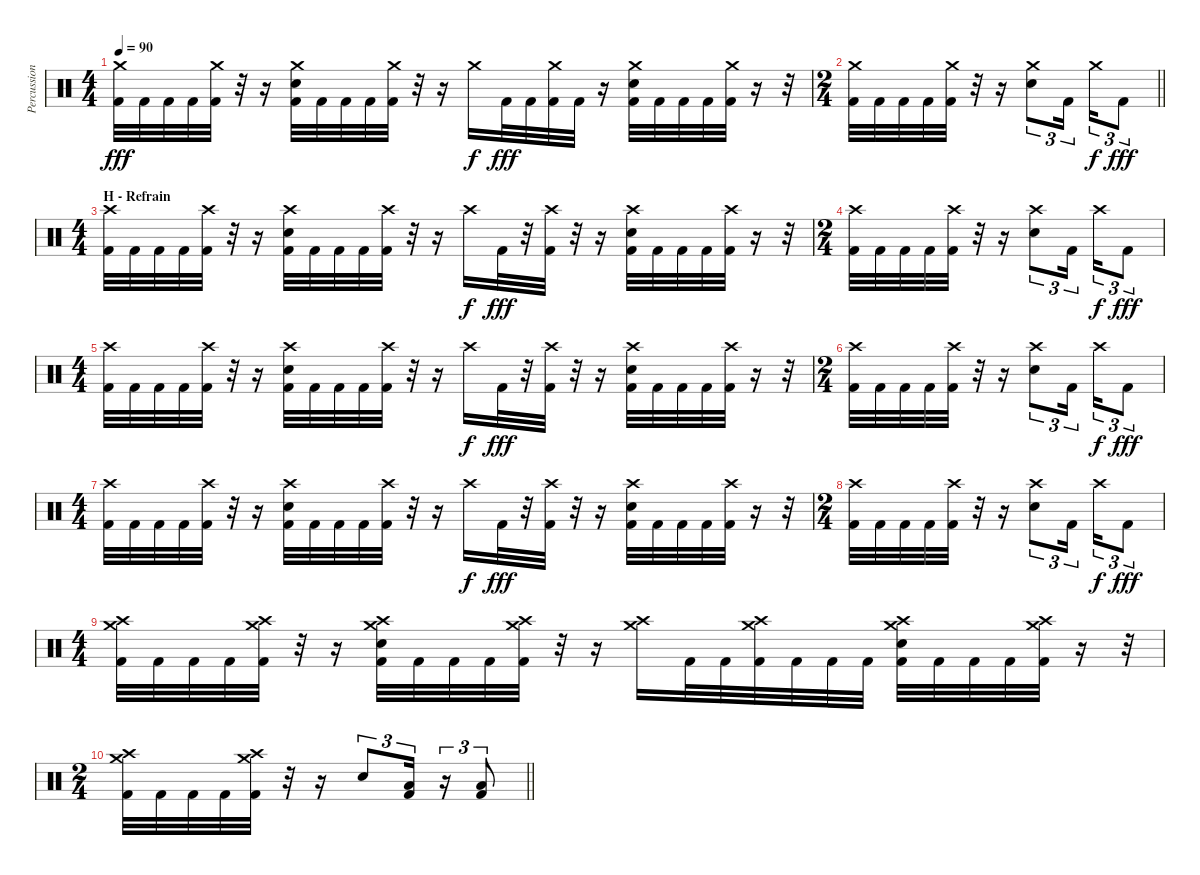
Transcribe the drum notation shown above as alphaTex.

\track ("Percussions" "Percussion") {instrument percussion}
\staff {score}
\articulation defaults
\ts (4 4)
\tempo 90
\clef neutral
\ks c
("Crash medium (hit)" "Kick (hit) 2").32{dy fff} "Kick (hit) 2".32 "Kick (hit) 2".32 "Kick (hit) 2".32 ("Crash medium (hit)" "Kick (hit) 2").32 r.32 r.16 ("Crash medium (hit)" "Snare (hit) 2" "Kick (hit) 2").32 "Kick (hit) 2".32 "Kick (hit) 2".32 "Kick (hit) 2".32 ("Crash medium (hit)" "Kick (hit) 2").32 r.32 r.16 "Crash medium (hit)".16{dy f} "Kick (hit) 2".32{dy fff} "Kick (hit) 2".32 ("Crash medium (hit)" "Kick (hit) 2").32 "Kick (hit) 2".32 r.16 ("Crash medium (hit)" "Snare (hit) 2" "Kick (hit) 2").32 "Kick (hit) 2".32 "Kick (hit) 2".32 "Kick (hit) 2".32 ("Crash medium (hit)" "Kick (hit) 2").32 r.16 r.32 |
\ts (2 4)
\barLineRight lightlight
("Crash medium (hit)" "Kick (hit) 2").32 "Kick (hit) 2".32 "Kick (hit) 2".32 "Kick (hit) 2".32 ("Crash medium (hit)" "Kick (hit) 2").32 r.32 r.16 ("Crash medium (hit)" "Snare (hit) 2").8{tu (3 2)} "Kick (hit) 2".16{tu (3 2) beam splitsecondary} "Crash medium (hit)".16{tu (3 2) dy f} "Kick (hit) 2".8{tu (3 2) dy fff} |
\ts (4 4)
\section ("" "H - Refrain")
("Crash high (hit)" "Kick (hit) 2").32 "Kick (hit) 2".32 "Kick (hit) 2".32 "Kick (hit) 2".32 ("Crash high (hit)" "Kick (hit) 2").32 r.32 r.16 ("Crash high (hit)" "Snare (hit) 2" "Kick (hit) 2").32 "Kick (hit) 2".32 "Kick (hit) 2".32 "Kick (hit) 2".32 ("Crash high (hit)" "Kick (hit) 2").32 r.32 r.16 "Crash high (hit)".16{dy f} "Kick (hit) 2".32{dy fff} r.32 ("Crash high (hit)" "Kick (hit) 2").32 r.32 r.16 ("Crash high (hit)" "Snare (hit) 2" "Kick (hit) 2").32 "Kick (hit) 2".32 "Kick (hit) 2".32 "Kick (hit) 2".32 ("Crash high (hit)" "Kick (hit) 2").32 r.16 r.32 |
\ts (2 4)
("Crash high (hit)" "Kick (hit) 2").32 "Kick (hit) 2".32 "Kick (hit) 2".32 "Kick (hit) 2".32 ("Crash high (hit)" "Kick (hit) 2").32 r.32 r.16 ("Crash high (hit)" "Snare (hit) 2").8{tu (3 2)} "Kick (hit) 2".16{tu (3 2) beam splitsecondary} "Crash high (hit)".16{tu (3 2) dy f} "Kick (hit) 2".8{tu (3 2) dy fff} |
\ts (4 4)
("Crash high (hit)" "Kick (hit) 2").32 "Kick (hit) 2".32 "Kick (hit) 2".32 "Kick (hit) 2".32 ("Crash high (hit)" "Kick (hit) 2").32 r.32 r.16 ("Crash high (hit)" "Snare (hit) 2" "Kick (hit) 2").32 "Kick (hit) 2".32 "Kick (hit) 2".32 "Kick (hit) 2".32 ("Crash high (hit)" "Kick (hit) 2").32 r.32 r.16 "Crash high (hit)".16{dy f} "Kick (hit) 2".32{dy fff} r.32 ("Crash high (hit)" "Kick (hit) 2").32 r.32 r.16 ("Crash high (hit)" "Snare (hit) 2" "Kick (hit) 2").32 "Kick (hit) 2".32 "Kick (hit) 2".32 "Kick (hit) 2".32 ("Crash high (hit)" "Kick (hit) 2").32 r.16 r.32 |
\ts (2 4)
("Crash high (hit)" "Kick (hit) 2").32 "Kick (hit) 2".32 "Kick (hit) 2".32 "Kick (hit) 2".32 ("Crash high (hit)" "Kick (hit) 2").32 r.32 r.16 ("Crash high (hit)" "Snare (hit) 2").8{tu (3 2)} "Kick (hit) 2".16{tu (3 2) beam splitsecondary} "Crash high (hit)".16{tu (3 2) dy f} "Kick (hit) 2".8{tu (3 2) dy fff} |
\ts (4 4)
("Crash high (hit)" "Kick (hit) 2").32 "Kick (hit) 2".32 "Kick (hit) 2".32 "Kick (hit) 2".32 ("Crash high (hit)" "Kick (hit) 2").32 r.32 r.16 ("Crash high (hit)" "Snare (hit) 2" "Kick (hit) 2").32 "Kick (hit) 2".32 "Kick (hit) 2".32 "Kick (hit) 2".32 ("Crash high (hit)" "Kick (hit) 2").32 r.32 r.16 "Crash high (hit)".16{dy f} "Kick (hit) 2".32{dy fff} r.32 ("Crash high (hit)" "Kick (hit) 2").32 r.32 r.16 ("Crash high (hit)" "Snare (hit) 2" "Kick (hit) 2").32 "Kick (hit) 2".32 "Kick (hit) 2".32 "Kick (hit) 2".32 ("Crash high (hit)" "Kick (hit) 2").32 r.16 r.32 |
\ts (2 4)
("Crash high (hit)" "Kick (hit) 2").32 "Kick (hit) 2".32 "Kick (hit) 2".32 "Kick (hit) 2".32 ("Crash high (hit)" "Kick (hit) 2").32 r.32 r.16 ("Crash high (hit)" "Snare (hit) 2").8{tu (3 2)} "Kick (hit) 2".16{tu (3 2) beam splitsecondary} "Crash high (hit)".16{tu (3 2) dy f} "Kick (hit) 2".8{tu (3 2) dy fff} |
\ts (4 4)
("Crash medium (hit)" "Crash high (hit)" "Kick (hit) 2").32 "Kick (hit) 2".32 "Kick (hit) 2".32 "Kick (hit) 2".32 ("Crash medium (hit)" "Crash high (hit)" "Kick (hit) 2").32 r.32 r.16 ("Crash medium (hit)" "Crash high (hit)" "Snare (hit) 2" "Kick (hit) 2").32 "Kick (hit) 2".32 "Kick (hit) 2".32 "Kick (hit) 2".32 ("Crash medium (hit)" "Crash high (hit)" "Kick (hit) 2").32 r.32 r.16 ("Crash high (hit)" "Crash medium (hit)").16 "Kick (hit) 2".32 "Kick (hit) 2".32 ("Crash high (hit)" "Crash medium (hit)" "Kick (hit) 2").32 "Kick (hit) 2".32 "Kick (hit) 2".32 "Kick (hit) 2".32 ("Crash high (hit)" "Crash medium (hit)" "Snare (hit) 2" "Kick (hit) 2").32 "Kick (hit) 2".32 "Kick (hit) 2".32 "Kick (hit) 2".32 ("Crash high (hit)" "Crash medium (hit)" "Kick (hit) 2").32 r.16 r.32 |
\ts (2 4)
\barLineRight lightlight
("Crash medium (hit)" "Crash high (hit)" "Kick (hit) 2").32 "Kick (hit) 2".32 "Kick (hit) 2".32 "Kick (hit) 2".32 ("Crash medium (hit)" "Crash high (hit)" "Kick (hit) 2").32 r.32 r.16 "Snare (hit) 2".8{tu (3 2)} ("Low Floor Tom (hit)" "Kick (hit) 2").16{tu (3 2)} r.16{tu (3 2)} ("Low Floor Tom (hit)" "Kick (hit) 2").8{tu (3 2)}
